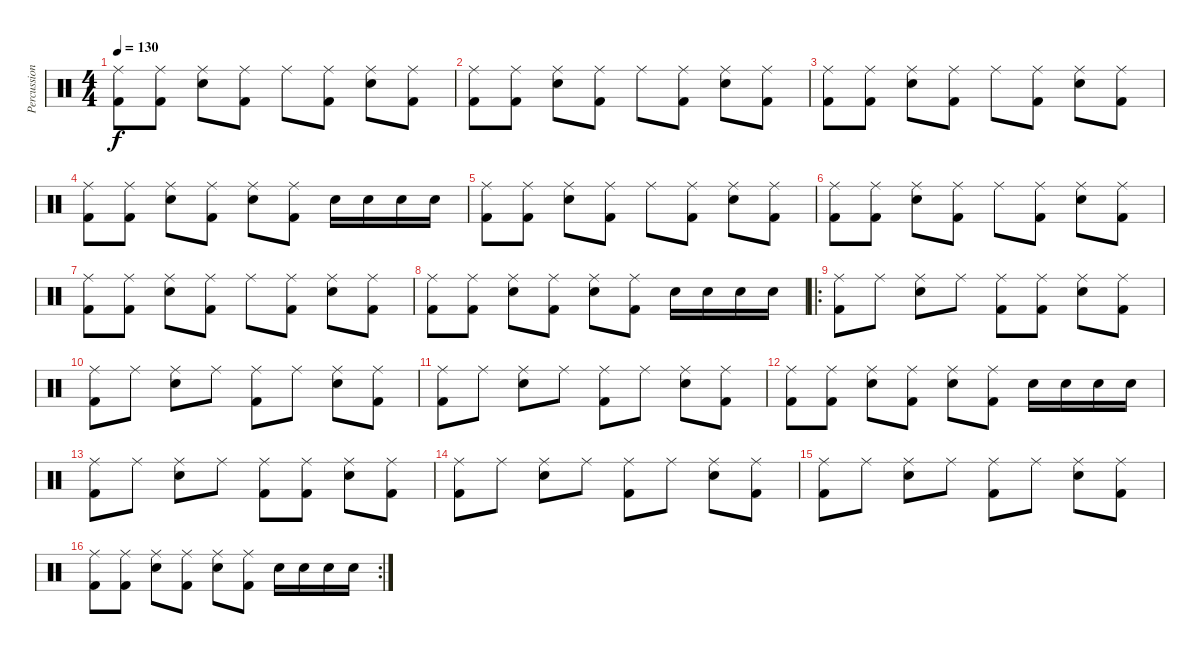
\track ("Percussion" "Percussion") {instrument percussion}
\staff {score}
\articulation defaults
\ts (4 4)
\tempo 130
\clef neutral
\ks c
("Kick (hit) 2" "Ride (middle)").8{dy f} ("Kick (hit) 2" "Ride (middle)").8 ("Snare (hit) 2" "Ride (middle)").8 ("Kick (hit) 2" "Ride (middle)").8 "Ride (middle)".8 ("Kick (hit) 2" "Ride (middle)").8 ("Snare (hit) 2" "Ride (middle)").8 ("Kick (hit) 2" "Ride (middle)").8 |
("Kick (hit) 2" "Ride (middle)").8 ("Kick (hit) 2" "Ride (middle)").8 ("Snare (hit) 2" "Ride (middle)").8 ("Kick (hit) 2" "Ride (middle)").8 "Ride (middle)".8 ("Kick (hit) 2" "Ride (middle)").8 ("Snare (hit) 2" "Ride (middle)").8 ("Kick (hit) 2" "Ride (middle)").8 |
("Kick (hit) 2" "Ride (middle)").8 ("Kick (hit) 2" "Ride (middle)").8 ("Snare (hit) 2" "Ride (middle)").8 ("Kick (hit) 2" "Ride (middle)").8 "Ride (middle)".8 ("Kick (hit) 2" "Ride (middle)").8 ("Snare (hit) 2" "Ride (middle)").8 ("Kick (hit) 2" "Ride (middle)").8 |
("Kick (hit) 2" "Ride (middle)").8 ("Kick (hit) 2" "Ride (middle)").8 ("Snare (hit) 2" "Ride (middle)").8 ("Kick (hit) 2" "Ride (middle)").8 ("Snare (hit) 2" "Ride (middle)").8 ("Kick (hit) 2" "Ride (middle)").8 "Snare (hit) 2".16 "Snare (hit) 2".16 "Snare (hit) 2".16 "Snare (hit) 2".16 |
("Kick (hit) 2" "Ride (middle)").8 ("Kick (hit) 2" "Ride (middle)").8 ("Snare (hit) 2" "Ride (middle)").8 ("Kick (hit) 2" "Ride (middle)").8 "Ride (middle)".8 ("Kick (hit) 2" "Ride (middle)").8 ("Snare (hit) 2" "Ride (middle)").8 ("Kick (hit) 2" "Ride (middle)").8 |
("Kick (hit) 2" "Ride (middle)").8 ("Kick (hit) 2" "Ride (middle)").8 ("Snare (hit) 2" "Ride (middle)").8 ("Kick (hit) 2" "Ride (middle)").8 "Ride (middle)".8 ("Kick (hit) 2" "Ride (middle)").8 ("Snare (hit) 2" "Ride (middle)").8 ("Kick (hit) 2" "Ride (middle)").8 |
("Kick (hit) 2" "Ride (middle)").8 ("Kick (hit) 2" "Ride (middle)").8 ("Snare (hit) 2" "Ride (middle)").8 ("Kick (hit) 2" "Ride (middle)").8 "Ride (middle)".8 ("Kick (hit) 2" "Ride (middle)").8 ("Snare (hit) 2" "Ride (middle)").8 ("Kick (hit) 2" "Ride (middle)").8 |
("Kick (hit) 2" "Ride (middle)").8 ("Kick (hit) 2" "Ride (middle)").8 ("Snare (hit) 2" "Ride (middle)").8 ("Kick (hit) 2" "Ride (middle)").8 ("Snare (hit) 2" "Ride (middle)").8 ("Kick (hit) 2" "Ride (middle)").8 "Snare (hit) 2".16 "Snare (hit) 2".16 "Snare (hit) 2".16 "Snare (hit) 2".16 |
\ro
("Kick (hit) 2" "Ride (middle)").8 "Ride (middle)".8 ("Snare (hit) 2" "Ride (middle)").8 "Ride (middle)".8 ("Kick (hit) 2" "Ride (middle)").8 ("Kick (hit) 2" "Ride (middle)").8 ("Snare (hit) 2" "Ride (middle)").8 ("Kick (hit) 2" "Ride (middle)").8 |
("Kick (hit) 2" "Ride (middle)").8 "Ride (middle)".8 ("Snare (hit) 2" "Ride (middle)").8 "Ride (middle)".8 ("Kick (hit) 2" "Ride (middle)").8 "Ride (middle)".8 ("Snare (hit) 2" "Ride (middle)").8 ("Kick (hit) 2" "Ride (middle)").8 |
("Kick (hit) 2" "Ride (middle)").8 "Ride (middle)".8 ("Snare (hit) 2" "Ride (middle)").8 "Ride (middle)".8 ("Kick (hit) 2" "Ride (middle)").8 "Ride (middle)".8 ("Snare (hit) 2" "Ride (middle)").8 ("Kick (hit) 2" "Ride (middle)").8 |
("Kick (hit) 2" "Ride (middle)").8 ("Kick (hit) 2" "Ride (middle)").8 ("Snare (hit) 2" "Ride (middle)").8 ("Kick (hit) 2" "Ride (middle)").8 ("Snare (hit) 2" "Ride (middle)").8 ("Kick (hit) 2" "Ride (middle)").8 "Snare (hit) 2".16 "Snare (hit) 2".16 "Snare (hit) 2".16 "Snare (hit) 2".16 |
("Kick (hit) 2" "Ride (middle)").8 "Ride (middle)".8 ("Snare (hit) 2" "Ride (middle)").8 "Ride (middle)".8 ("Kick (hit) 2" "Ride (middle)").8 ("Kick (hit) 2" "Ride (middle)").8 ("Snare (hit) 2" "Ride (middle)").8 ("Kick (hit) 2" "Ride (middle)").8 |
("Kick (hit) 2" "Ride (middle)").8 "Ride (middle)".8 ("Snare (hit) 2" "Ride (middle)").8 "Ride (middle)".8 ("Kick (hit) 2" "Ride (middle)").8 "Ride (middle)".8 ("Snare (hit) 2" "Ride (middle)").8 ("Kick (hit) 2" "Ride (middle)").8 |
("Kick (hit) 2" "Ride (middle)").8 "Ride (middle)".8 ("Snare (hit) 2" "Ride (middle)").8 "Ride (middle)".8 ("Kick (hit) 2" "Ride (middle)").8 "Ride (middle)".8 ("Snare (hit) 2" "Ride (middle)").8 ("Kick (hit) 2" "Ride (middle)").8 |
\rc 2
("Kick (hit) 2" "Ride (middle)").8 ("Kick (hit) 2" "Ride (middle)").8 ("Snare (hit) 2" "Ride (middle)").8 ("Kick (hit) 2" "Ride (middle)").8 ("Snare (hit) 2" "Ride (middle)").8 ("Kick (hit) 2" "Ride (middle)").8 "Snare (hit) 2".16 "Snare (hit) 2".16 "Snare (hit) 2".16 "Snare (hit) 2".16
